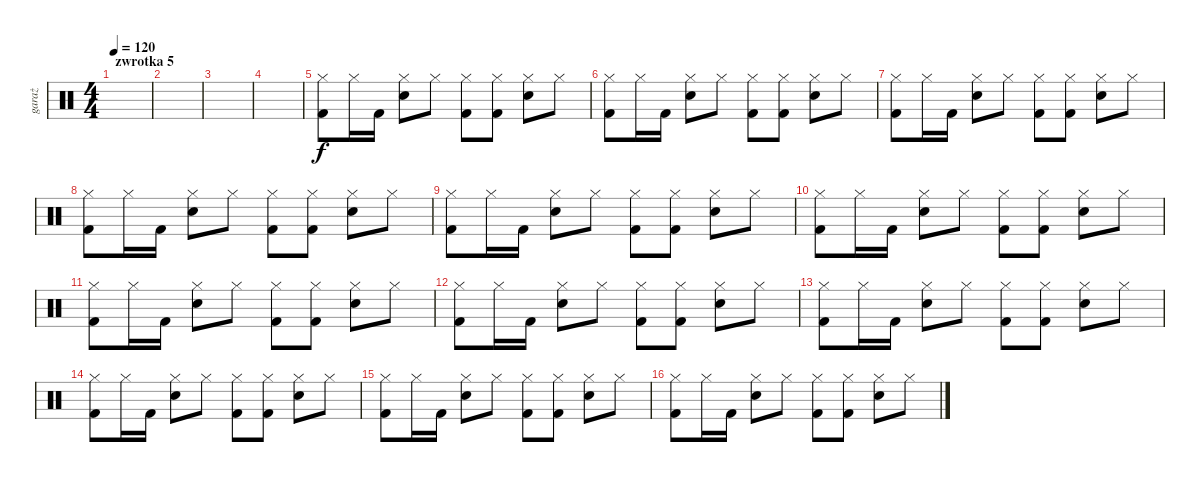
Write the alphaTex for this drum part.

\track ("garaż" "garaż") {instrument percussion}
\staff {score}
\articulation defaults
\ts (4 4)
\section ("" "zwrotka 5")
\tempo 120
\clef neutral
\ks c
|
|
|
|
("Hi-Hat (closed)" "Kick (hit) 2").8{volume 13} "Hi-Hat (closed)".16 "Kick (hit) 2".16 ("Hi-Hat (closed)" "Snare (hit) 2").8 "Hi-Hat (closed)".8 ("Hi-Hat (closed)" "Kick (hit) 2").8 ("Hi-Hat (closed)" "Kick (hit) 2").8 ("Hi-Hat (closed)" "Snare (hit) 2").8 "Hi-Hat (closed)".8 |
("Hi-Hat (closed)" "Kick (hit) 2").8{volume 13} "Hi-Hat (closed)".16 "Kick (hit) 2".16 ("Hi-Hat (closed)" "Snare (hit) 2").8 "Hi-Hat (closed)".8 ("Hi-Hat (closed)" "Kick (hit) 2").8 ("Hi-Hat (closed)" "Kick (hit) 2").8 ("Hi-Hat (closed)" "Snare (hit) 2").8 "Hi-Hat (closed)".8 |
("Hi-Hat (closed)" "Kick (hit) 2").8{volume 13} "Hi-Hat (closed)".16 "Kick (hit) 2".16 ("Hi-Hat (closed)" "Snare (hit) 2").8 "Hi-Hat (closed)".8 ("Hi-Hat (closed)" "Kick (hit) 2").8 ("Hi-Hat (closed)" "Kick (hit) 2").8 ("Hi-Hat (closed)" "Snare (hit) 2").8 "Hi-Hat (closed)".8 |
("Hi-Hat (closed)" "Kick (hit) 2").8{volume 13} "Hi-Hat (closed)".16 "Kick (hit) 2".16 ("Hi-Hat (closed)" "Snare (hit) 2").8 "Hi-Hat (closed)".8 ("Hi-Hat (closed)" "Kick (hit) 2").8 ("Hi-Hat (closed)" "Kick (hit) 2").8 ("Hi-Hat (closed)" "Snare (hit) 2").8 "Hi-Hat (closed)".8 |
("Hi-Hat (closed)" "Kick (hit) 2").8{volume 13} "Hi-Hat (closed)".16 "Kick (hit) 2".16 ("Hi-Hat (closed)" "Snare (hit) 2").8 "Hi-Hat (closed)".8 ("Hi-Hat (closed)" "Kick (hit) 2").8 ("Hi-Hat (closed)" "Kick (hit) 2").8 ("Hi-Hat (closed)" "Snare (hit) 2").8 "Hi-Hat (closed)".8 |
("Hi-Hat (closed)" "Kick (hit) 2").8{volume 13} "Hi-Hat (closed)".16 "Kick (hit) 2".16 ("Hi-Hat (closed)" "Snare (hit) 2").8 "Hi-Hat (closed)".8 ("Hi-Hat (closed)" "Kick (hit) 2").8 ("Hi-Hat (closed)" "Kick (hit) 2").8 ("Hi-Hat (closed)" "Snare (hit) 2").8 "Hi-Hat (closed)".8 |
("Hi-Hat (closed)" "Kick (hit) 2").8{volume 13} "Hi-Hat (closed)".16 "Kick (hit) 2".16 ("Hi-Hat (closed)" "Snare (hit) 2").8 "Hi-Hat (closed)".8 ("Hi-Hat (closed)" "Kick (hit) 2").8 ("Hi-Hat (closed)" "Kick (hit) 2").8 ("Hi-Hat (closed)" "Snare (hit) 2").8 "Hi-Hat (closed)".8 |
("Hi-Hat (closed)" "Kick (hit) 2").8{volume 13} "Hi-Hat (closed)".16 "Kick (hit) 2".16 ("Hi-Hat (closed)" "Snare (hit) 2").8 "Hi-Hat (closed)".8 ("Hi-Hat (closed)" "Kick (hit) 2").8 ("Hi-Hat (closed)" "Kick (hit) 2").8 ("Hi-Hat (closed)" "Snare (hit) 2").8 "Hi-Hat (closed)".8 |
("Hi-Hat (closed)" "Kick (hit) 2").8{volume 13} "Hi-Hat (closed)".16 "Kick (hit) 2".16 ("Hi-Hat (closed)" "Snare (hit) 2").8 "Hi-Hat (closed)".8 ("Hi-Hat (closed)" "Kick (hit) 2").8 ("Hi-Hat (closed)" "Kick (hit) 2").8 ("Hi-Hat (closed)" "Snare (hit) 2").8 "Hi-Hat (closed)".8 |
("Hi-Hat (closed)" "Kick (hit) 2").8{volume 13} "Hi-Hat (closed)".16 "Kick (hit) 2".16 ("Hi-Hat (closed)" "Snare (hit) 2").8 "Hi-Hat (closed)".8 ("Hi-Hat (closed)" "Kick (hit) 2").8 ("Hi-Hat (closed)" "Kick (hit) 2").8 ("Hi-Hat (closed)" "Snare (hit) 2").8 "Hi-Hat (closed)".8 |
("Hi-Hat (closed)" "Kick (hit) 2").8{volume 13} "Hi-Hat (closed)".16 "Kick (hit) 2".16 ("Hi-Hat (closed)" "Snare (hit) 2").8 "Hi-Hat (closed)".8 ("Hi-Hat (closed)" "Kick (hit) 2").8 ("Hi-Hat (closed)" "Kick (hit) 2").8 ("Hi-Hat (closed)" "Snare (hit) 2").8 "Hi-Hat (closed)".8 |
("Hi-Hat (closed)" "Kick (hit) 2").8{volume 13} "Hi-Hat (closed)".16 "Kick (hit) 2".16 ("Hi-Hat (closed)" "Snare (hit) 2").8 "Hi-Hat (closed)".8 ("Hi-Hat (closed)" "Kick (hit) 2").8 ("Hi-Hat (closed)" "Kick (hit) 2").8 ("Hi-Hat (closed)" "Snare (hit) 2").8 "Hi-Hat (closed)".8{volume 16}
